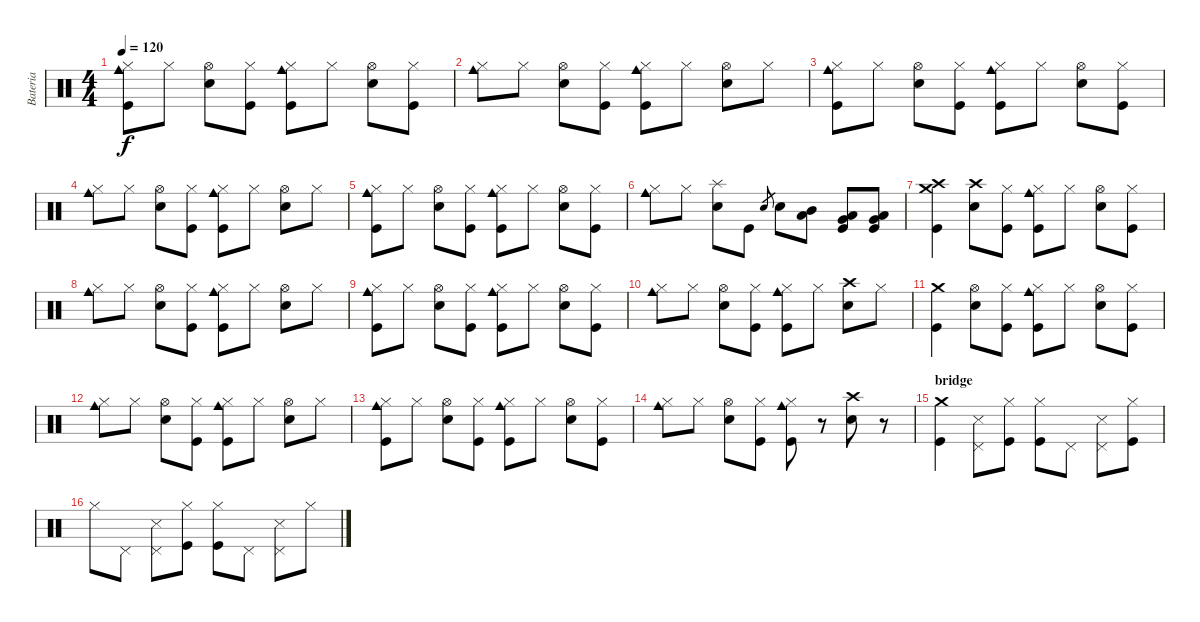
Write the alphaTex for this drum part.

\track ("Bateria" "Bateria") {instrument percussion}
\staff {score}
\articulation defaults
\ts (4 4)
\tempo 120
\clef neutral
\ks c
("Hi-Hat (closed)" "Cowbell medium (hit)" "Kick (hit)").8{dy f} "Hi-Hat (closed)".8 ("Hi-Hat (open)" "Electric Snare (hit)").8 ("Hi-Hat (closed)" "Kick (hit)").8 ("Hi-Hat (closed)" "Cowbell medium (hit)" "Kick (hit)").8 "Hi-Hat (closed)".8 ("Hi-Hat (open)" "Electric Snare (hit)").8 ("Hi-Hat (closed)" "Kick (hit)").8 |
("Hi-Hat (closed)" "Cowbell medium (hit)").8 "Hi-Hat (closed)".8 ("Hi-Hat (open)" "Electric Snare (hit)").8 ("Hi-Hat (closed)" "Kick (hit)").8 ("Hi-Hat (closed)" "Cowbell medium (hit)" "Kick (hit)").8 "Hi-Hat (closed)".8 ("Hi-Hat (open)" "Electric Snare (hit)").8 "Hi-Hat (closed)".8 |
("Hi-Hat (closed)" "Cowbell medium (hit)" "Kick (hit)").8 "Hi-Hat (closed)".8 ("Hi-Hat (open)" "Electric Snare (hit)").8 ("Hi-Hat (closed)" "Kick (hit)").8 ("Hi-Hat (closed)" "Cowbell medium (hit)" "Kick (hit)").8 "Hi-Hat (closed)".8 ("Hi-Hat (open)" "Electric Snare (hit)").8 ("Hi-Hat (closed)" "Kick (hit)").8 |
("Hi-Hat (closed)" "Cowbell medium (hit)").8 "Hi-Hat (closed)".8 ("Hi-Hat (open)" "Electric Snare (hit)").8 ("Hi-Hat (closed)" "Kick (hit)").8 ("Hi-Hat (closed)" "Cowbell medium (hit)" "Kick (hit)").8 "Hi-Hat (closed)".8 ("Hi-Hat (open)" "Electric Snare (hit)").8 "Hi-Hat (closed)".8 |
("Hi-Hat (closed)" "Cowbell medium (hit)" "Kick (hit)").8 "Hi-Hat (closed)".8 ("Hi-Hat (open)" "Electric Snare (hit)").8 ("Hi-Hat (closed)" "Kick (hit)").8 ("Hi-Hat (closed)" "Cowbell medium (hit)" "Kick (hit)").8 "Hi-Hat (closed)".8 ("Hi-Hat (open)" "Electric Snare (hit)").8 ("Hi-Hat (closed)" "Kick (hit)").8 |
("Hi-Hat (closed)" "Cowbell medium (hit)").8 "Hi-Hat (closed)".8 ("Splash (hit)" "Electric Snare (hit)").8 "Kick (hit)".8 "Electric Snare (hit)".8{gr} "Electric Snare (hit)".8 ("Mid Tom (hit)" "Low Tom (hit)").8 ("Low Tom (hit)" "Very Low Tom (hit)" "Kick (hit)").8 ("Low Tom (hit)" "Very Low Tom (hit)" "Kick (hit)").8 |
("Crash medium (hit)" "Crash high (hit)" "Kick (hit)").4 ("Crash high (hit)" "Electric Snare (hit)").8 ("Hi-Hat (closed)" "Kick (hit)").8 ("Hi-Hat (closed)" "Cowbell medium (hit)" "Kick (hit)").8 "Hi-Hat (closed)".8 ("Hi-Hat (open)" "Electric Snare (hit)").8 ("Hi-Hat (closed)" "Kick (hit)").8 |
("Hi-Hat (closed)" "Cowbell medium (hit)").8 "Hi-Hat (closed)".8 ("Hi-Hat (open)" "Electric Snare (hit)").8 ("Hi-Hat (closed)" "Kick (hit)").8 ("Hi-Hat (closed)" "Cowbell medium (hit)" "Kick (hit)").8 "Hi-Hat (closed)".8 ("Hi-Hat (open)" "Electric Snare (hit)").8 "Hi-Hat (closed)".8 |
("Hi-Hat (closed)" "Cowbell medium (hit)" "Kick (hit)").8 "Hi-Hat (closed)".8 ("Hi-Hat (open)" "Electric Snare (hit)").8 ("Hi-Hat (closed)" "Kick (hit)").8 ("Hi-Hat (closed)" "Cowbell medium (hit)" "Kick (hit)").8 "Hi-Hat (closed)".8 ("Hi-Hat (open)" "Electric Snare (hit)").8 ("Hi-Hat (closed)" "Kick (hit)").8 |
("Hi-Hat (closed)" "Cowbell medium (hit)").8 "Hi-Hat (closed)".8 ("Hi-Hat (open)" "Electric Snare (hit)").8 ("Hi-Hat (closed)" "Kick (hit)").8 ("Hi-Hat (closed)" "Cowbell medium (hit)" "Kick (hit)").8 "Hi-Hat (closed)".8 ("Crash high (hit)" "Electric Snare (hit)").8 "Hi-Hat (closed)".8 |
("Crash medium (hit)" "Kick (hit)").4 ("Hi-Hat (open)" "Electric Snare (hit)").8 ("Hi-Hat (closed)" "Kick (hit)").8 ("Hi-Hat (closed)" "Cowbell medium (hit)" "Kick (hit)").8 "Hi-Hat (closed)".8 ("Hi-Hat (open)" "Electric Snare (hit)").8 ("Hi-Hat (closed)" "Kick (hit)").8 |
("Hi-Hat (closed)" "Cowbell medium (hit)").8 "Hi-Hat (closed)".8 ("Hi-Hat (open)" "Electric Snare (hit)").8 ("Hi-Hat (closed)" "Kick (hit)").8 ("Hi-Hat (closed)" "Cowbell medium (hit)" "Kick (hit)").8 "Hi-Hat (closed)".8 ("Hi-Hat (open)" "Electric Snare (hit)").8 "Hi-Hat (closed)".8 |
("Hi-Hat (closed)" "Cowbell medium (hit)" "Kick (hit)").8 "Hi-Hat (closed)".8 ("Hi-Hat (open)" "Electric Snare (hit)").8 ("Hi-Hat (closed)" "Kick (hit)").8 ("Hi-Hat (closed)" "Cowbell medium (hit)" "Kick (hit)").8 "Hi-Hat (closed)".8 ("Hi-Hat (open)" "Electric Snare (hit)").8 ("Hi-Hat (closed)" "Kick (hit)").8 |
("Hi-Hat (closed)" "Cowbell medium (hit)").8 "Hi-Hat (closed)".8 ("Hi-Hat (open)" "Electric Snare (hit)").8 ("Hi-Hat (closed)" "Kick (hit)").8 ("Hi-Hat (closed)" "Cowbell medium (hit)" "Kick (hit)").8 r.8 ("Crash high (hit)" "Electric Snare (hit)").8 r.8 |
\section ("" "bridge")
("Crash medium (hit)" "Kick (hit)").4 ("Pedal Hi-Hat (hit)" "Snare (side stick) 3").8 ("Hi-Hat (closed)" "Kick (hit)").8 ("Hi-Hat (closed)" "Kick (hit)").8 "Pedal Hi-Hat (hit)".8 ("Pedal Hi-Hat (hit)" "Snare (side stick) 3").8 ("Hi-Hat (closed)" "Kick (hit)").8 |
"Hi-Hat (closed)".8 "Pedal Hi-Hat (hit)".8 ("Pedal Hi-Hat (hit)" "Snare (side stick) 3").8 ("Hi-Hat (closed)" "Kick (hit)").8 ("Hi-Hat (closed)" "Kick (hit)").8 "Pedal Hi-Hat (hit)".8 ("Pedal Hi-Hat (hit)" "Snare (side stick) 3").8 "Hi-Hat (closed)".8
